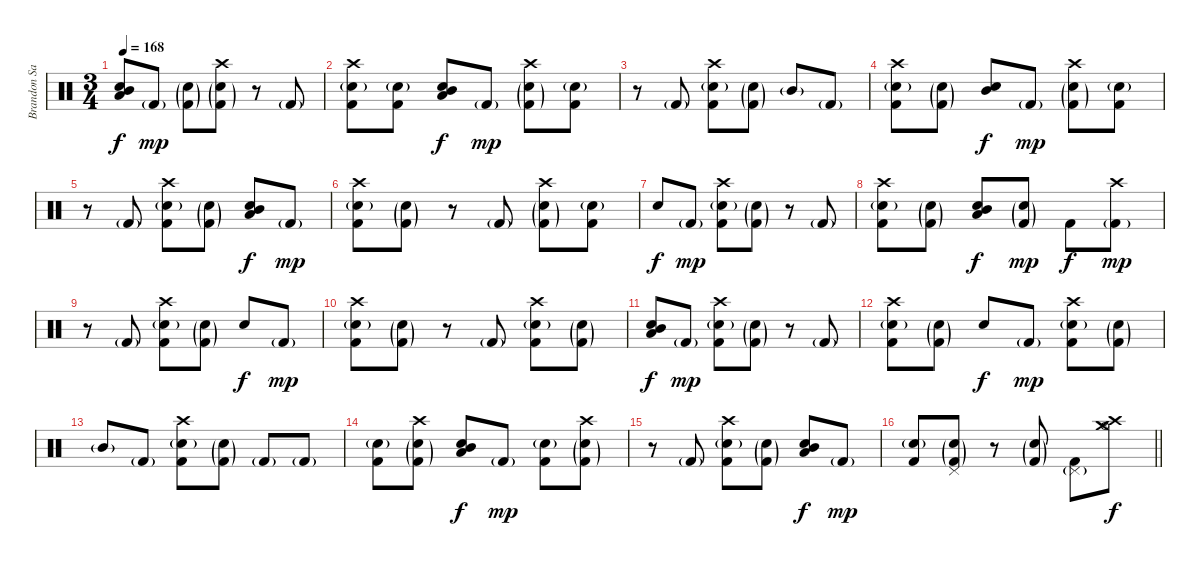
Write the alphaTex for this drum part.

\track ("Brandon Saller" "Brandon Sa") {instrument percussion}
\staff {score}
\articulation defaults
\ts (3 4)
\tempo 168
\clef neutral
\ks c
("Snare (hit) 2" "Low Tom (hit)" "Mid Tom (hit)").8{dy f} "Kick (hit) 2"{g}.8{dy mp} ("Snare (hit)"{g} "Kick (hit) 2"{g}).8 ("Crash high (hit)" "Snare (hit)"{g} "Kick (hit) 2"{g}).8 r.8 "Kick (hit) 2"{g}.8 |
("Crash high (hit)" "Snare (hit)"{g} "Kick (hit) 2").8 ("Snare (hit)"{g} "Kick (hit) 2").8 ("Snare (hit) 2" "Low Tom (hit)" "Mid Tom (hit)").8{dy f} "Kick (hit) 2"{g}.8{dy mp} ("Crash high (hit)" "Snare (hit)"{g} "Kick (hit) 2"{g}).8 ("Snare (hit)"{g} "Kick (hit) 2").8 |
r.8 "Kick (hit) 2"{g}.8 ("Crash high (hit)" "Snare (hit)"{g} "Kick (hit) 2").8 ("Snare (hit)"{g} "Kick (hit) 2"{g}).8 "Mid Tom (hit)"{g}.8 "Kick (hit) 2"{g}.8 |
("Crash high (hit)" "Snare (hit)"{g} "Kick (hit) 2").8 ("Snare (hit)"{g} "Kick (hit) 2"{g}).8 ("Snare (hit) 2" "Mid Tom (hit)").8{dy f} "Kick (hit) 2"{g}.8{dy mp} ("Crash high (hit)" "Snare (hit)"{g} "Kick (hit) 2"{g}).8 ("Snare (hit)"{g} "Kick (hit) 2").8 |
r.8 "Kick (hit) 2"{g}.8 ("Crash high (hit)" "Snare (hit)"{g} "Kick (hit) 2").8 ("Snare (hit)"{g} "Kick (hit) 2"{g}).8 ("Snare (hit) 2" "Low Tom (hit)" "Mid Tom (hit)").8{dy f} "Kick (hit) 2"{g}.8{dy mp} |
("Crash high (hit)" "Snare (hit)"{g} "Kick (hit) 2").8 ("Snare (hit)"{g} "Kick (hit) 2"{g}).8 r.8 "Kick (hit) 2"{g}.8 ("Crash high (hit)" "Snare (hit)"{g} "Kick (hit) 2"{g}).8 ("Snare (hit)"{g} "Kick (hit) 2").8 |
"Snare (hit) 2".8{dy f} "Kick (hit) 2"{g}.8{dy mp} ("Crash high (hit)" "Snare (hit)"{g} "Kick (hit) 2").8 ("Snare (hit)"{g} "Kick (hit) 2"{g}).8 r.8 "Kick (hit) 2"{g}.8 |
("Crash high (hit)" "Snare (hit)"{g} "Kick (hit) 2").8 ("Snare (hit)"{g} "Kick (hit) 2"{g}).8 ("Snare (hit) 2" "Low Tom (hit)" "Mid Tom (hit)").8{dy f} ("Snare (hit)"{g} "Kick (hit) 2"{g}).8{dy mp} "Kick (hit) 2".8{dy f} ("Crash high (hit)" "Kick (hit) 2"{g}).8{dy mp} |
r.8 "Kick (hit) 2"{g}.8 ("Crash high (hit)" "Snare (hit)"{g} "Kick (hit) 2").8 ("Snare (hit)"{g} "Kick (hit) 2"{g}).8 "Snare (hit) 2".8{dy f} "Kick (hit) 2"{g}.8{dy mp} |
("Crash high (hit)" "Snare (hit)"{g} "Kick (hit) 2").8 ("Snare (hit)"{g} "Kick (hit) 2"{g}).8 r.8 "Kick (hit) 2"{g}.8 ("Crash high (hit)" "Snare (hit)"{g} "Kick (hit) 2").8 ("Snare (hit)"{g} "Kick (hit) 2"{g}).8 |
("Snare (hit) 2" "Low Tom (hit)" "Mid Tom (hit)").8{dy f} "Kick (hit) 2"{g}.8{dy mp} ("Crash high (hit)" "Snare (hit)"{g} "Kick (hit) 2").8 ("Snare (hit)"{g} "Kick (hit) 2"{g}).8 r.8 "Kick (hit) 2"{g}.8 |
("Crash high (hit)" "Snare (hit)"{g} "Kick (hit) 2").8 ("Snare (hit)"{g} "Kick (hit) 2"{g}).8 "Snare (hit) 2".8{dy f} "Kick (hit) 2"{g}.8{dy mp} ("Crash high (hit)" "Snare (hit)"{g} "Kick (hit) 2").8 ("Snare (hit)"{g} "Kick (hit) 2"{g}).8 |
"Mid Tom (hit)"{g}.8 "Kick (hit) 2"{g}.8 ("Crash high (hit)" "Snare (hit)"{g} "Kick (hit) 2").8 ("Snare (hit)"{g} "Kick (hit) 2"{g}).8 "Kick (hit) 2"{g}.8 "Kick (hit) 2"{g}.8 |
("Snare (hit)"{g} "Kick (hit) 2").8 ("Crash high (hit)" "Snare (hit)"{g} "Kick (hit) 2"{g}).8 ("Snare (hit) 2" "Low Tom (hit)" "Mid Tom (hit)").8{dy f} "Kick (hit) 2"{g}.8{dy mp} ("Snare (hit)"{g} "Kick (hit) 2").8 ("Crash high (hit)" "Snare (hit)"{g} "Kick (hit) 2"{g}).8 |
r.8 "Kick (hit) 2"{g}.8 ("Crash high (hit)" "Snare (hit)"{g} "Kick (hit) 2").8 ("Snare (hit)"{g} "Kick (hit) 2"{g}).8 ("Snare (hit) 2" "Low Tom (hit)" "Mid Tom (hit)").8{dy f} "Kick (hit) 2"{g}.8{dy mp} |
\barLineRight lightlight
("Snare (hit)"{g} "Kick (hit) 2").8 ("Pedal Hi-Hat (hit)" "Snare (hit)"{g} "Kick (hit) 2"{g}).8 r.8 ("Snare (hit)"{g} "Kick (hit) 2"{g}).8 ("Pedal Hi-Hat (hit)"{g} "Kick (hit) 2").8 ("Crash medium (hit)" "Crash high (hit)" "Hi-Hat (open)").8{dy f}
